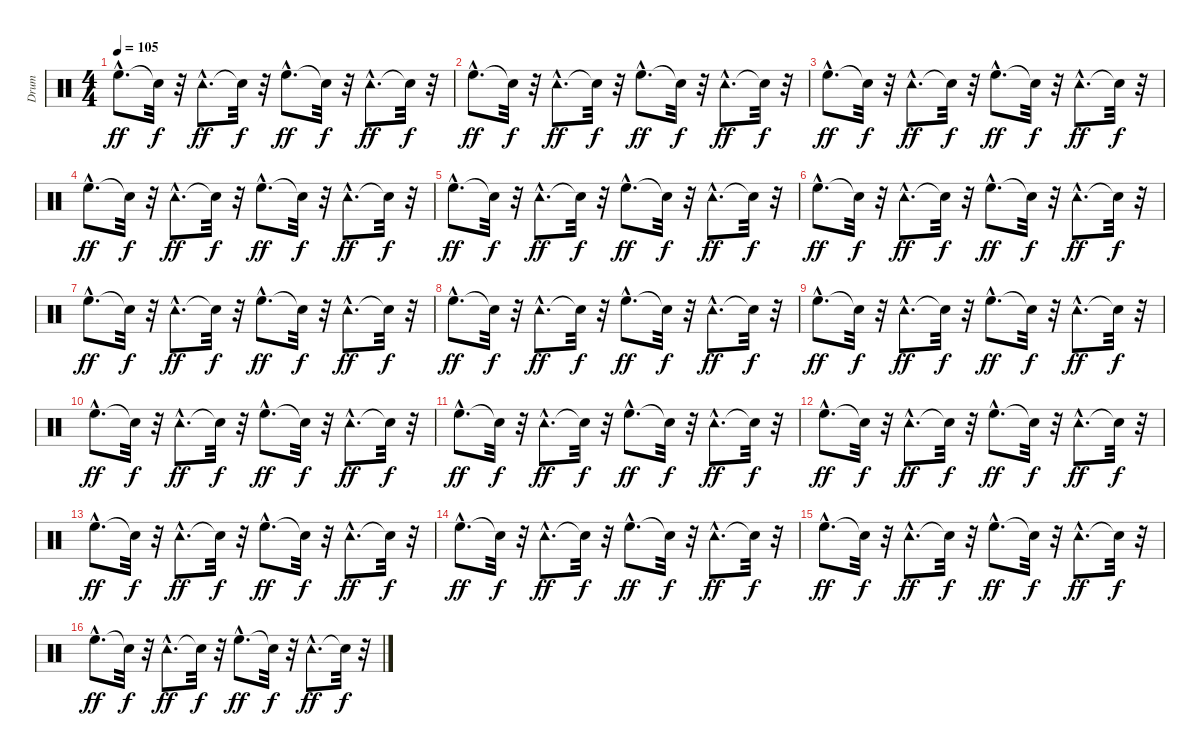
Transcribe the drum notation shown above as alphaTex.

\track ("Drum" "Drum") {instrument percussion}
\staff {score}
\articulation defaults
\ts (4 4)
\tempo 105
\clef neutral
\ks c "High Floor Tom (hit)"{hac}.8{d dy ff} "Snare (hit)"{t}.32{dy f}
r.32 "Tambourine (hit)"{hac}.8{d dy ff} "Snare (hit)"{t}.32{dy f} r.32 "High Floor Tom (hit)"{hac}.8{d dy ff} "Snare (hit)"{t}.32{dy f} r.32 "Tambourine (hit)"{hac}.8{d dy ff} "Snare (hit)"{t}.32{dy f} r.32 |
"High Floor Tom (hit)"{hac}.8{d dy ff} "Snare (hit)"{t}.32{dy f} r.32 "Tambourine (hit)"{hac}.8{d dy ff} "Snare (hit)"{t}.32{dy f} r.32 "High Floor Tom (hit)"{hac}.8{d dy ff} "Snare (hit)"{t}.32{dy f} r.32 "Tambourine (hit)"{hac}.8{d dy ff} "Snare (hit)"{t}.32{dy f} r.32 |
"High Floor Tom (hit)"{hac}.8{d dy ff} "Snare (hit)"{t}.32{dy f} r.32 "Tambourine (hit)"{hac}.8{d dy ff} "Snare (hit)"{t}.32{dy f} r.32 "High Floor Tom (hit)"{hac}.8{d dy ff} "Snare (hit)"{t}.32{dy f} r.32 "Tambourine (hit)"{hac}.8{d dy ff} "Snare (hit)"{t}.32{dy f} r.32 |
"High Floor Tom (hit)"{hac}.8{d dy ff} "Snare (hit)"{t}.32{dy f} r.32 "Tambourine (hit)"{hac}.8{d dy ff} "Snare (hit)"{t}.32{dy f} r.32 "High Floor Tom (hit)"{hac}.8{d dy ff} "Snare (hit)"{t}.32{dy f} r.32 "Tambourine (hit)"{hac}.8{d dy ff} "Snare (hit)"{t}.32{dy f} r.32 |
"High Floor Tom (hit)"{hac}.8{d dy ff} "Snare (hit)"{t}.32{dy f} r.32 "Tambourine (hit)"{hac}.8{d dy ff} "Snare (hit)"{t}.32{dy f} r.32 "High Floor Tom (hit)"{hac}.8{d dy ff} "Snare (hit)"{t}.32{dy f} r.32 "Tambourine (hit)"{hac}.8{d dy ff} "Snare (hit)"{t}.32{dy f} r.32 |
"High Floor Tom (hit)"{hac}.8{d dy ff} "Snare (hit)"{t}.32{dy f} r.32 "Tambourine (hit)"{hac}.8{d dy ff} "Snare (hit)"{t}.32{dy f} r.32 "High Floor Tom (hit)"{hac}.8{d dy ff} "Snare (hit)"{t}.32{dy f} r.32 "Tambourine (hit)"{hac}.8{d dy ff} "Snare (hit)"{t}.32{dy f} r.32 |
"High Floor Tom (hit)"{hac}.8{d dy ff} "Snare (hit)"{t}.32{dy f} r.32 "Tambourine (hit)"{hac}.8{d dy ff} "Snare (hit)"{t}.32{dy f} r.32 "High Floor Tom (hit)"{hac}.8{d dy ff} "Snare (hit)"{t}.32{dy f} r.32 "Tambourine (hit)"{hac}.8{d dy ff} "Snare (hit)"{t}.32{dy f} r.32 |
"High Floor Tom (hit)"{hac}.8{d dy ff} "Snare (hit)"{t}.32{dy f} r.32 "Tambourine (hit)"{hac}.8{d dy ff} "Snare (hit)"{t}.32{dy f} r.32 "High Floor Tom (hit)"{hac}.8{d dy ff} "Snare (hit)"{t}.32{dy f} r.32 "Tambourine (hit)"{hac}.8{d dy ff} "Snare (hit)"{t}.32{dy f} r.32 |
"High Floor Tom (hit)"{hac}.8{d dy ff} "Snare (hit)"{t}.32{dy f} r.32 "Tambourine (hit)"{hac}.8{d dy ff} "Snare (hit)"{t}.32{dy f} r.32 "High Floor Tom (hit)"{hac}.8{d dy ff} "Snare (hit)"{t}.32{dy f} r.32 "Tambourine (hit)"{hac}.8{d dy ff} "Snare (hit)"{t}.32{dy f} r.32 |
"High Floor Tom (hit)"{hac}.8{d dy ff} "Snare (hit)"{t}.32{dy f} r.32 "Tambourine (hit)"{hac}.8{d dy ff} "Snare (hit)"{t}.32{dy f} r.32 "High Floor Tom (hit)"{hac}.8{d dy ff} "Snare (hit)"{t}.32{dy f} r.32 "Tambourine (hit)"{hac}.8{d dy ff} "Snare (hit)"{t}.32{dy f} r.32 |
"High Floor Tom (hit)"{hac}.8{d dy ff} "Snare (hit)"{t}.32{dy f} r.32 "Tambourine (hit)"{hac}.8{d dy ff} "Snare (hit)"{t}.32{dy f} r.32 "High Floor Tom (hit)"{hac}.8{d dy ff} "Snare (hit)"{t}.32{dy f} r.32 "Tambourine (hit)"{hac}.8{d dy ff} "Snare (hit)"{t}.32{dy f} r.32 |
"High Floor Tom (hit)"{hac}.8{d dy ff} "Snare (hit)"{t}.32{dy f} r.32 "Tambourine (hit)"{hac}.8{d dy ff} "Snare (hit)"{t}.32{dy f} r.32 "High Floor Tom (hit)"{hac}.8{d dy ff} "Snare (hit)"{t}.32{dy f} r.32 "Tambourine (hit)"{hac}.8{d dy ff} "Snare (hit)"{t}.32{dy f} r.32 |
"High Floor Tom (hit)"{hac}.8{d dy ff} "Snare (hit)"{t}.32{dy f} r.32 "Tambourine (hit)"{hac}.8{d dy ff} "Snare (hit)"{t}.32{dy f} r.32 "High Floor Tom (hit)"{hac}.8{d dy ff} "Snare (hit)"{t}.32{dy f} r.32 "Tambourine (hit)"{hac}.8{d dy ff} "Snare (hit)"{t}.32{dy f} r.32 |
"High Floor Tom (hit)"{hac}.8{d dy ff} "Snare (hit)"{t}.32{dy f} r.32 "Tambourine (hit)"{hac}.8{d dy ff} "Snare (hit)"{t}.32{dy f} r.32 "High Floor Tom (hit)"{hac}.8{d dy ff} "Snare (hit)"{t}.32{dy f} r.32 "Tambourine (hit)"{hac}.8{d dy ff} "Snare (hit)"{t}.32{dy f} r.32 |
"High Floor Tom (hit)"{hac}.8{d dy ff} "Snare (hit)"{t}.32{dy f} r.32 "Tambourine (hit)"{hac}.8{d dy ff} "Snare (hit)"{t}.32{dy f} r.32 "High Floor Tom (hit)"{hac}.8{d dy ff} "Snare (hit)"{t}.32{dy f} r.32 "Tambourine (hit)"{hac}.8{d dy ff} "Snare (hit)"{t}.32{dy f} r.32 |
"High Floor Tom (hit)"{hac}.8{d dy ff} "Snare (hit)"{t}.32{dy f} r.32 "Tambourine (hit)"{hac}.8{d dy ff} "Snare (hit)"{t}.32{dy f} r.32 "High Floor Tom (hit)"{hac}.8{d dy ff} "Snare (hit)"{t}.32{dy f} r.32 "Tambourine (hit)"{hac}.8{d dy ff} "Snare (hit)"{t}.32{dy f} r.32
